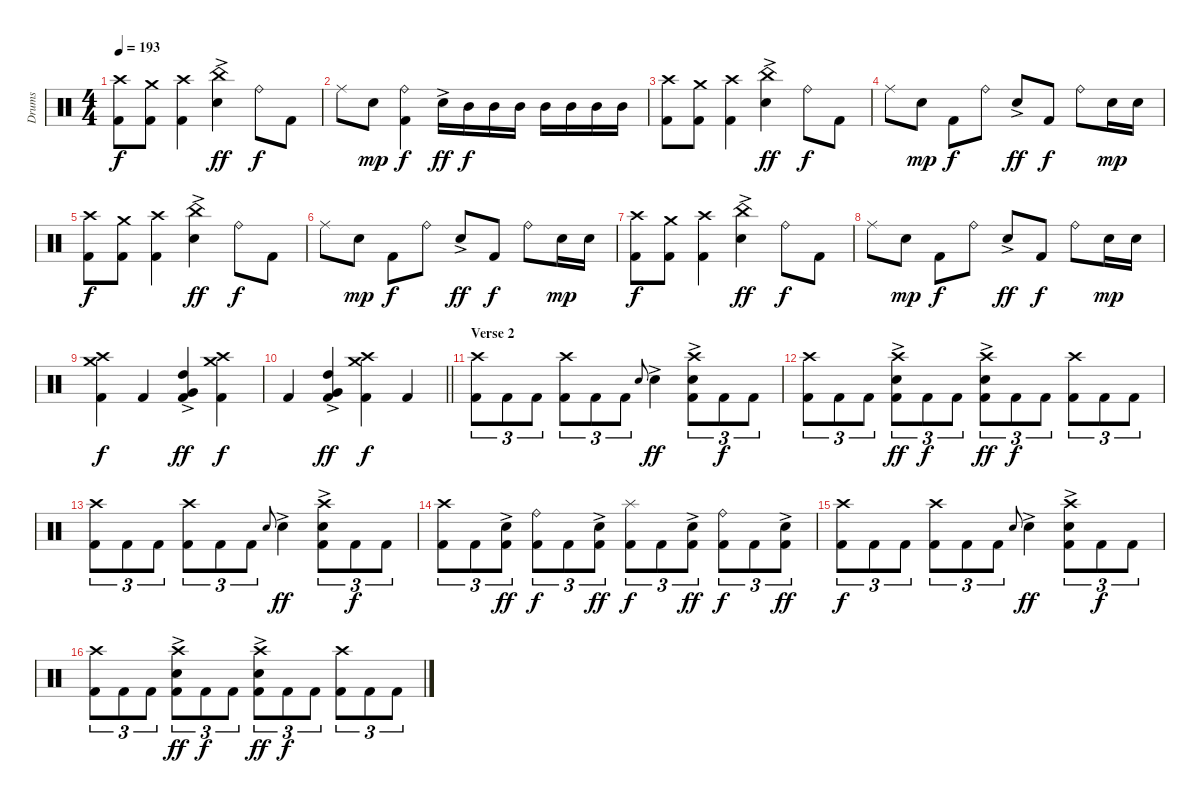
\track ("Drums" "Drums") {instrument percussion}
\staff {score}
\articulation defaults
\ts (4 4)
\tempo 193
\clef neutral
\ks c
("Crash high (hit)" "Kick (hit) 2").8{dy f} ("Crash medium (hit)" "Kick (hit) 2").8 ("Crash high (hit)" "Kick (hit) 2").4 ("China (hit)" "Electric Snare (hit)"{ac}).4{dy ff} "Ride (bell)".8{dy f} "Kick (hit) 2".8 |
"Ride (middle)".8 "Electric Snare (hit)".8{dy mp} ("Ride (bell)" "Kick (hit) 2").4{dy f} "Electric Snare (hit)"{ac}.16{dy ff} "Mid Tom (hit)".16{dy f} "Mid Tom (hit)".16 "Mid Tom (hit)".16 "Mid Tom (hit)".16 "Mid Tom (hit)".16 "Mid Tom (hit)".16 "Mid Tom (hit)".16 |
("Crash high (hit)" "Kick (hit) 2").8 ("Crash medium (hit)" "Kick (hit) 2").8 ("Crash high (hit)" "Kick (hit) 2").4 ("China (hit)" "Electric Snare (hit)"{ac}).4{dy ff} "Ride (bell)".8{dy f} "Kick (hit) 2".8 |
"Ride (middle)".8 "Electric Snare (hit)".8{dy mp} "Kick (hit) 2".8{dy f} "Ride (bell)".8 "Electric Snare (hit)"{ac}.8{dy ff} "Kick (hit) 2".8{dy f} "Ride (bell)".8 "Electric Snare (hit)".16{dy mp} "Electric Snare (hit)".16 |
("Crash high (hit)" "Kick (hit) 2").8{dy f} ("Crash medium (hit)" "Kick (hit) 2").8 ("Crash high (hit)" "Kick (hit) 2").4 ("China (hit)" "Electric Snare (hit)"{ac}).4{dy ff} "Ride (bell)".8{dy f} "Kick (hit) 2".8 |
"Ride (middle)".8 "Electric Snare (hit)".8{dy mp} "Kick (hit) 2".8{dy f} "Ride (bell)".8 "Electric Snare (hit)"{ac}.8{dy ff} "Kick (hit) 2".8{dy f} "Ride (bell)".8 "Electric Snare (hit)".16{dy mp} "Electric Snare (hit)".16 |
("Crash high (hit)" "Kick (hit) 2").8{dy f} ("Crash medium (hit)" "Kick (hit) 2").8 ("Crash high (hit)" "Kick (hit) 2").4 ("China (hit)" "Electric Snare (hit)"{ac}).4{dy ff} "Ride (bell)".8{dy f} "Kick (hit) 2".8 |
"Ride (middle)".8 "Electric Snare (hit)".8{dy mp} "Kick (hit) 2".8{dy f} "Ride (bell)".8 "Electric Snare (hit)"{ac}.8{dy ff} "Kick (hit) 2".8{dy f} "Ride (bell)".8 "Electric Snare (hit)".16{dy mp} "Electric Snare (hit)".16 |
("Crash high (hit)" "Crash medium (hit)" "Kick (hit) 2").4{dy f} "Kick (hit) 2".4 ("High Tom (hit)"{ac} "Very Low Tom (hit)"{ac} "Kick (hit) 2").4{dy ff} ("Crash high (hit)" "Crash medium (hit)" "Kick (hit) 2").4{dy f} |
\barLineRight lightlight "Kick (hit) 2".4
("High Tom (hit)"{ac} "Very Low Tom (hit)"{ac} "Kick (hit) 2").4{dy ff} ("Crash high (hit)" "Crash medium (hit)" "Kick (hit) 2").4{dy f} "Kick (hit) 2".4 |
\section ("" "Verse 2")
("Crash high (hit)" "Kick (hit) 2").8{tu (3 2)} "Kick (hit) 2".8{tu (3 2)} "Kick (hit) 2".8{tu (3 2)} ("Crash high (hit)" "Kick (hit) 2").8{tu (3 2)} "Kick (hit) 2".8{tu (3 2)} "Kick (hit) 2".8{tu (3 2)} "Electric Snare (hit)".8{gr onbeat} "Electric Snare (hit)"{ac}.4{dy ff} ("Crash high (hit)" "Electric Snare (hit)"{ac} "Kick (hit) 2").8{tu (3 2)} "Kick (hit) 2".8{tu (3 2) dy f} "Kick (hit) 2".8{tu (3 2)} |
("Crash high (hit)" "Kick (hit) 2").8{tu (3 2)} "Kick (hit) 2".8{tu (3 2)} "Kick (hit) 2".8{tu (3 2)} ("Crash high (hit)" "Electric Snare (hit)"{ac} "Kick (hit) 2").8{tu (3 2) dy ff} "Kick (hit) 2".8{tu (3 2) dy f} "Kick (hit) 2".8{tu (3 2)} ("Crash high (hit)" "Electric Snare (hit)"{ac} "Kick (hit) 2").8{tu (3 2) dy ff} "Kick (hit) 2".8{tu (3 2) dy f} "Kick (hit) 2".8{tu (3 2)} ("Crash high (hit)" "Kick (hit) 2").8{tu (3 2)} "Kick (hit) 2".8{tu (3 2)} "Kick (hit) 2".8{tu (3 2)} |
("Crash high (hit)" "Kick (hit) 2").8{tu (3 2)} "Kick (hit) 2".8{tu (3 2)} "Kick (hit) 2".8{tu (3 2)} ("Crash high (hit)" "Kick (hit) 2").8{tu (3 2)} "Kick (hit) 2".8{tu (3 2)} "Kick (hit) 2".8{tu (3 2)} "Electric Snare (hit)".8{gr onbeat} "Electric Snare (hit)"{ac}.4{dy ff} ("Crash high (hit)" "Electric Snare (hit)"{ac} "Kick (hit) 2").8{tu (3 2)} "Kick (hit) 2".8{tu (3 2) dy f} "Kick (hit) 2".8{tu (3 2)} |
("Crash high (hit)" "Kick (hit) 2").8{tu (3 2)} "Kick (hit) 2".8{tu (3 2)} ("Electric Snare (hit)"{ac} "Kick (hit) 2").8{tu (3 2) dy ff} ("Ride (bell)" "Kick (hit) 2").8{tu (3 2) dy f} "Kick (hit) 2".8{tu (3 2)} ("Electric Snare (hit)"{ac} "Kick (hit) 2").8{tu (3 2) dy ff} ("Splash (hit)" "Kick (hit) 2").8{tu (3 2) dy f} "Kick (hit) 2".8{tu (3 2)} ("Electric Snare (hit)"{ac} "Kick (hit) 2").8{tu (3 2) dy ff} ("Ride (bell)" "Kick (hit) 2").8{tu (3 2) dy f} "Kick (hit) 2".8{tu (3 2)} ("Electric Snare (hit)"{ac} "Kick (hit) 2").8{tu (3 2) dy ff} |
("Crash high (hit)" "Kick (hit) 2").8{tu (3 2) dy f} "Kick (hit) 2".8{tu (3 2)} "Kick (hit) 2".8{tu (3 2)} ("Crash high (hit)" "Kick (hit) 2").8{tu (3 2)} "Kick (hit) 2".8{tu (3 2)} "Kick (hit) 2".8{tu (3 2)} "Electric Snare (hit)".8{gr onbeat} "Electric Snare (hit)"{ac}.4{dy ff} ("Crash high (hit)" "Electric Snare (hit)"{ac} "Kick (hit) 2").8{tu (3 2)} "Kick (hit) 2".8{tu (3 2) dy f} "Kick (hit) 2".8{tu (3 2)} |
("Crash high (hit)" "Kick (hit) 2").8{tu (3 2)} "Kick (hit) 2".8{tu (3 2)} "Kick (hit) 2".8{tu (3 2)} ("Crash high (hit)" "Electric Snare (hit)"{ac} "Kick (hit) 2").8{tu (3 2) dy ff} "Kick (hit) 2".8{tu (3 2) dy f} "Kick (hit) 2".8{tu (3 2)} ("Crash high (hit)" "Electric Snare (hit)"{ac} "Kick (hit) 2").8{tu (3 2) dy ff} "Kick (hit) 2".8{tu (3 2) dy f} "Kick (hit) 2".8{tu (3 2)} ("Crash high (hit)" "Kick (hit) 2").8{tu (3 2)} "Kick (hit) 2".8{tu (3 2)} "Kick (hit) 2".8{tu (3 2)}
